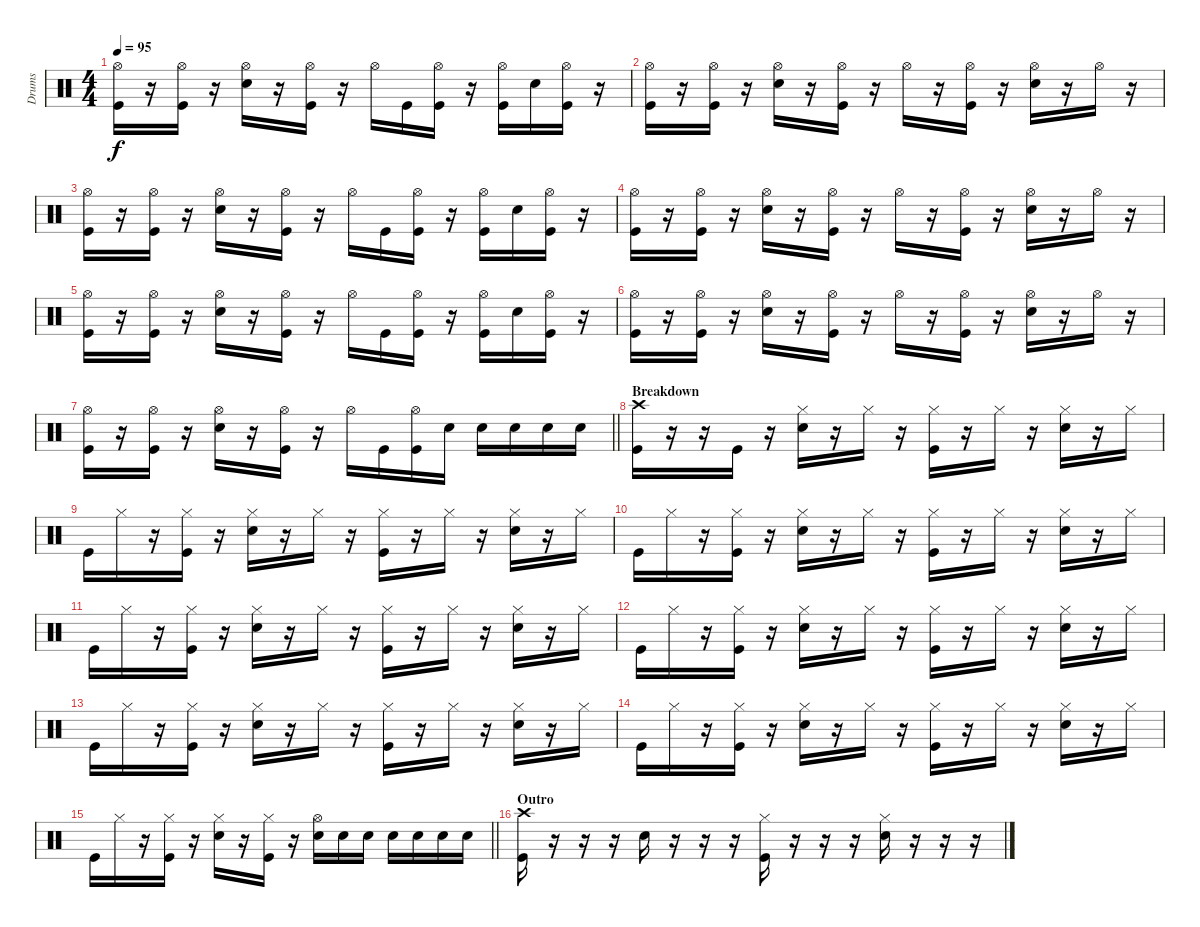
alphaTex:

\track ("Drums" "Drums") {instrument percussion bank 177}
\staff {score}
\articulation defaults
\ts (4 4)
\tempo 95
\clef neutral
\ks c
("Hi-Hat (open)" "Kick (hit)").16{dy f} r.16 ("Hi-Hat (open)" "Kick (hit)").16 r.16 ("Hi-Hat (open)" "Snare (hit) 2").16 r.16 ("Hi-Hat (open)" "Kick (hit)").16 r.16 "Hi-Hat (open)".16 "Kick (hit)".16 ("Hi-Hat (open)" "Kick (hit)").16 r.16 ("Hi-Hat (open)" "Kick (hit)").16 "Snare (hit) 2".16 ("Hi-Hat (open)" "Kick (hit)").16 r.16 |
("Hi-Hat (open)" "Kick (hit)").16 r.16 ("Hi-Hat (open)" "Kick (hit)").16 r.16 ("Hi-Hat (open)" "Snare (hit) 2").16 r.16 ("Hi-Hat (open)" "Kick (hit)").16 r.16 "Hi-Hat (open)".16 r.16 ("Hi-Hat (open)" "Kick (hit)").16 r.16 ("Hi-Hat (open)" "Snare (hit) 2").16 r.16 "Hi-Hat (open)".16 r.16 |
("Hi-Hat (open)" "Kick (hit)").16 r.16 ("Hi-Hat (open)" "Kick (hit)").16 r.16 ("Hi-Hat (open)" "Snare (hit) 2").16 r.16 ("Hi-Hat (open)" "Kick (hit)").16 r.16 "Hi-Hat (open)".16 "Kick (hit)".16 ("Hi-Hat (open)" "Kick (hit)").16 r.16 ("Hi-Hat (open)" "Kick (hit)").16 "Snare (hit) 2".16 ("Hi-Hat (open)" "Kick (hit)").16 r.16 |
("Hi-Hat (open)" "Kick (hit)").16 r.16 ("Hi-Hat (open)" "Kick (hit)").16 r.16 ("Hi-Hat (open)" "Snare (hit) 2").16 r.16 ("Hi-Hat (open)" "Kick (hit)").16 r.16 "Hi-Hat (open)".16 r.16 ("Hi-Hat (open)" "Kick (hit)").16 r.16 ("Hi-Hat (open)" "Snare (hit) 2").16 r.16 "Hi-Hat (open)".16 r.16 |
("Hi-Hat (open)" "Kick (hit)").16 r.16 ("Hi-Hat (open)" "Kick (hit)").16 r.16 ("Hi-Hat (open)" "Snare (hit) 2").16 r.16 ("Hi-Hat (open)" "Kick (hit)").16 r.16 "Hi-Hat (open)".16 "Kick (hit)".16 ("Hi-Hat (open)" "Kick (hit)").16 r.16 ("Hi-Hat (open)" "Kick (hit)").16 "Snare (hit) 2".16 ("Hi-Hat (open)" "Kick (hit)").16 r.16 |
("Hi-Hat (open)" "Kick (hit)").16 r.16 ("Hi-Hat (open)" "Kick (hit)").16 r.16 ("Hi-Hat (open)" "Snare (hit) 2").16 r.16 ("Hi-Hat (open)" "Kick (hit)").16 r.16 "Hi-Hat (open)".16 r.16 ("Hi-Hat (open)" "Kick (hit)").16 r.16 ("Hi-Hat (open)" "Snare (hit) 2").16 r.16 "Hi-Hat (open)".16 r.16 |
\barLineRight lightlight
("Hi-Hat (open)" "Kick (hit)").16 r.16 ("Hi-Hat (open)" "Kick (hit)").16 r.16 ("Hi-Hat (open)" "Snare (hit) 2").16 r.16 ("Hi-Hat (open)" "Kick (hit)").16 r.16 "Hi-Hat (open)".16 "Kick (hit)".16 ("Hi-Hat (open)" "Kick (hit)").16 "Snare (hit) 2".16 "Snare (hit) 2".16 "Snare (hit) 2".16 "Snare (hit) 2".16 "Snare (hit) 2".16 |
\section ("" "Breakdown")
("Crash high (hit)" "Kick (hit)").16 r.16 r.16 "Kick (hit)".16 r.16 ("Hi-Hat (closed)" "Snare (hit) 2").16 r.16 "Hi-Hat (closed)".16 r.16 ("Hi-Hat (closed)" "Kick (hit)").16 r.16 "Hi-Hat (closed)".16 r.16 ("Hi-Hat (closed)" "Snare (hit) 2").16 r.16 "Hi-Hat (closed)".16 |
"Kick (hit)".16 "Hi-Hat (closed)".16 r.16 ("Hi-Hat (closed)" "Kick (hit)").16 r.16 ("Hi-Hat (closed)" "Snare (hit) 2").16 r.16 "Hi-Hat (closed)".16 r.16 ("Hi-Hat (closed)" "Kick (hit)").16 r.16 "Hi-Hat (closed)".16 r.16 ("Hi-Hat (closed)" "Snare (hit) 2").16 r.16 "Hi-Hat (closed)".16 |
"Kick (hit)".16 "Hi-Hat (closed)".16 r.16 ("Hi-Hat (closed)" "Kick (hit)").16 r.16 ("Hi-Hat (closed)" "Snare (hit) 2").16 r.16 "Hi-Hat (closed)".16 r.16 ("Hi-Hat (closed)" "Kick (hit)").16 r.16 "Hi-Hat (closed)".16 r.16 ("Hi-Hat (closed)" "Snare (hit) 2").16 r.16 "Hi-Hat (closed)".16 |
"Kick (hit)".16 "Hi-Hat (closed)".16 r.16 ("Hi-Hat (closed)" "Kick (hit)").16 r.16 ("Hi-Hat (closed)" "Snare (hit) 2").16 r.16 "Hi-Hat (closed)".16 r.16 ("Hi-Hat (closed)" "Kick (hit)").16 r.16 "Hi-Hat (closed)".16 r.16 ("Hi-Hat (closed)" "Snare (hit) 2").16 r.16 "Hi-Hat (closed)".16 |
"Kick (hit)".16 "Hi-Hat (closed)".16 r.16 ("Hi-Hat (closed)" "Kick (hit)").16 r.16 ("Hi-Hat (closed)" "Snare (hit) 2").16 r.16 "Hi-Hat (closed)".16 r.16 ("Hi-Hat (closed)" "Kick (hit)").16 r.16 "Hi-Hat (closed)".16 r.16 ("Hi-Hat (closed)" "Snare (hit) 2").16 r.16 "Hi-Hat (closed)".16 |
"Kick (hit)".16 "Hi-Hat (closed)".16 r.16 ("Hi-Hat (closed)" "Kick (hit)").16 r.16 ("Hi-Hat (closed)" "Snare (hit) 2").16 r.16 "Hi-Hat (closed)".16 r.16 ("Hi-Hat (closed)" "Kick (hit)").16 r.16 "Hi-Hat (closed)".16 r.16 ("Hi-Hat (closed)" "Snare (hit) 2").16 r.16 "Hi-Hat (closed)".16 |
"Kick (hit)".16 "Hi-Hat (closed)".16 r.16 ("Hi-Hat (closed)" "Kick (hit)").16 r.16 ("Hi-Hat (closed)" "Snare (hit) 2").16 r.16 "Hi-Hat (closed)".16 r.16 ("Hi-Hat (closed)" "Kick (hit)").16 r.16 "Hi-Hat (closed)".16 r.16 ("Hi-Hat (closed)" "Snare (hit) 2").16 r.16 "Hi-Hat (closed)".16 |
\barLineRight lightlight "Kick (hit)".16 "Hi-Hat (closed)".16
r.16 ("Hi-Hat (closed)" "Kick (hit)").16 r.16 ("Hi-Hat (closed)" "Snare (hit) 2").16 r.16 ("Hi-Hat (closed)" "Kick (hit)").16 r.16 ("Hi-Hat (open)" "Snare (hit) 2").16 "Snare (hit) 2".16 "Snare (hit) 2".16 "Snare (hit) 2".16 "Snare (hit) 2".16 "Snare (hit) 2".16 "Snare (hit) 2".16 |
\section ("" "Outro")
("Crash high (hit)" "Kick (hit)").16 r.16 r.16 r.16 "Snare (hit) 2".16 r.16 r.16 r.16 ("Hi-Hat (closed)" "Kick (hit)").16 r.16 r.16 r.16 ("Hi-Hat (closed)" "Snare (hit) 2").16 r.16 r.16 r.16
